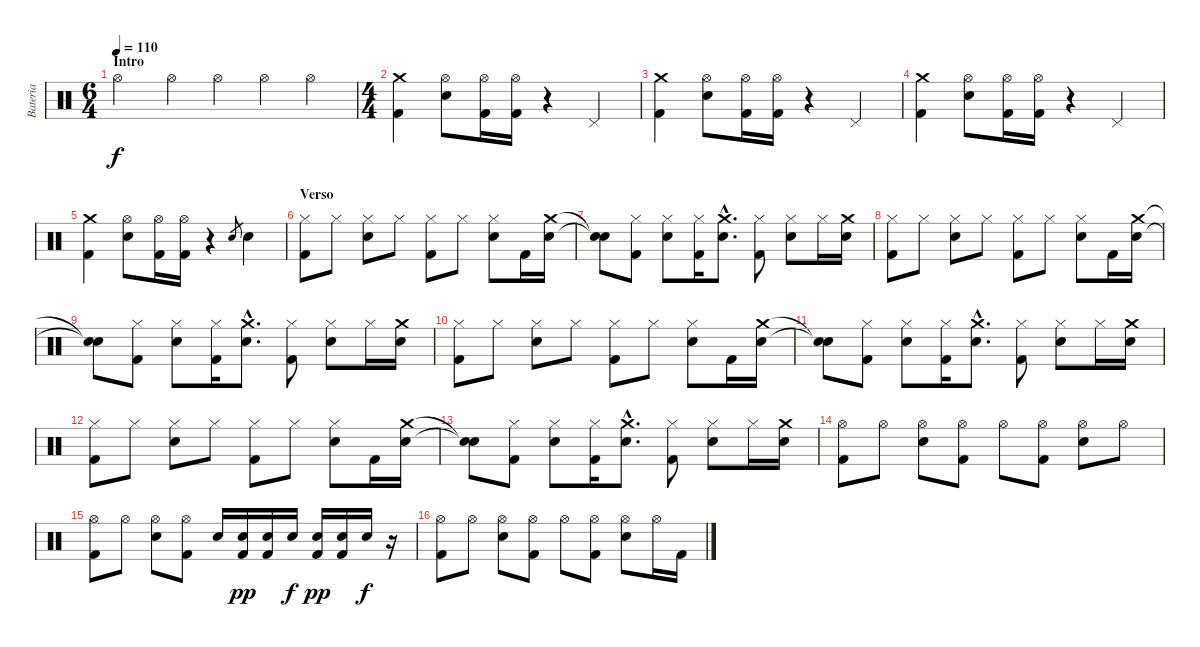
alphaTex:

\track ("Bateria" "Bateria") {instrument percussion}
\staff {score}
\articulation defaults
\ts (6 4)
\section ("" "Intro")
\tempo 110
\clef neutral
\ks c "Hi-Hat (open)".2{dy f} "Hi-Hat (open)".4 "Hi-Hat (open)".4 "Hi-Hat (open)".4 "Hi-Hat (open)".4
|
\ts (4 4)
("Kick (hit) 2" "Crash medium (hit)").4 ("Snare (hit) 2" "Hi-Hat (open)").8 ("Kick (hit) 2" "Hi-Hat (open)").16 ("Kick (hit) 2" "Hi-Hat (open)").16 r.4 "Pedal Hi-Hat (hit)".4 |
("Kick (hit) 2" "Crash medium (hit)").4 ("Snare (hit) 2" "Hi-Hat (open)").8 ("Kick (hit) 2" "Hi-Hat (open)").16 ("Kick (hit) 2" "Hi-Hat (open)").16 r.4 "Pedal Hi-Hat (hit)".4 |
("Kick (hit) 2" "Crash medium (hit)").4 ("Snare (hit) 2" "Hi-Hat (open)").8 ("Kick (hit) 2" "Hi-Hat (open)").16 ("Kick (hit) 2" "Hi-Hat (open)").16 r.4 "Pedal Hi-Hat (hit)".4 |
("Kick (hit) 2" "Crash medium (hit)").4 ("Snare (hit) 2" "Hi-Hat (open)").8 ("Kick (hit) 2" "Hi-Hat (open)").16 ("Kick (hit) 2" "Hi-Hat (open)").16 r.4 "Snare (hit) 2".8{gr} "Snare (hit) 2".4 |
\section ("" "Verso")
("Hi-Hat (closed)" "Kick (hit) 2").8 "Hi-Hat (closed)".8 ("Hi-Hat (closed)" "Snare (hit) 2").8 "Hi-Hat (closed)".8 ("Hi-Hat (closed)" "Kick (hit) 2").8 "Hi-Hat (closed)".8 ("Hi-Hat (closed)" "Snare (hit) 2").8 "Kick (hit) 2".16 ("Crash medium (hit)" "Snare (hit) 2").16 |
("Snare (hit)"{t} "Snare (hit)"{t}).8 ("Hi-Hat (closed)" "Kick (hit) 2").8 ("Hi-Hat (closed)" "Snare (hit) 2").8 ("Hi-Hat (closed)" "Kick (hit) 2").16 ("Crash medium (hit)"{hac} "Snare (hit) 2"{hac}).8{d} ("Hi-Hat (closed)" "Kick (hit) 2").8 ("Hi-Hat (closed)" "Snare (hit) 2").8 "Hi-Hat (closed)".16 ("Crash medium (hit)" "Snare (hit) 2").16 |
("Hi-Hat (closed)" "Kick (hit) 2").8 "Hi-Hat (closed)".8 ("Hi-Hat (closed)" "Snare (hit) 2").8 "Hi-Hat (closed)".8 ("Hi-Hat (closed)" "Kick (hit) 2").8 "Hi-Hat (closed)".8 ("Hi-Hat (closed)" "Snare (hit) 2").8 "Kick (hit) 2".16 ("Crash medium (hit)" "Snare (hit) 2").16 |
("Snare (hit)"{t} "Snare (hit)"{t}).8 ("Hi-Hat (closed)" "Kick (hit) 2").8 ("Hi-Hat (closed)" "Snare (hit) 2").8 ("Hi-Hat (closed)" "Kick (hit) 2").16 ("Crash medium (hit)"{hac} "Snare (hit) 2"{hac}).8{d} ("Hi-Hat (closed)" "Kick (hit) 2").8 ("Hi-Hat (closed)" "Snare (hit) 2").8 "Hi-Hat (closed)".16 ("Crash medium (hit)" "Snare (hit) 2").16 |
("Hi-Hat (closed)" "Kick (hit) 2").8 "Hi-Hat (closed)".8 ("Hi-Hat (closed)" "Snare (hit) 2").8 "Hi-Hat (closed)".8 ("Hi-Hat (closed)" "Kick (hit) 2").8 "Hi-Hat (closed)".8 ("Hi-Hat (closed)" "Snare (hit) 2").8 "Kick (hit) 2".16 ("Crash medium (hit)" "Snare (hit) 2").16 |
("Snare (hit)"{t} "Snare (hit)"{t}).8 ("Hi-Hat (closed)" "Kick (hit) 2").8 ("Hi-Hat (closed)" "Snare (hit) 2").8 ("Hi-Hat (closed)" "Kick (hit) 2").16 ("Crash medium (hit)"{hac} "Snare (hit) 2"{hac}).8{d} ("Hi-Hat (closed)" "Kick (hit) 2").8 ("Hi-Hat (closed)" "Snare (hit) 2").8 "Hi-Hat (closed)".16 ("Crash medium (hit)" "Snare (hit) 2").16 |
("Hi-Hat (closed)" "Kick (hit) 2").8 "Hi-Hat (closed)".8 ("Hi-Hat (closed)" "Snare (hit) 2").8 "Hi-Hat (closed)".8 ("Hi-Hat (closed)" "Kick (hit) 2").8 "Hi-Hat (closed)".8 ("Hi-Hat (closed)" "Snare (hit) 2").8 "Kick (hit) 2".16 ("Crash medium (hit)" "Snare (hit) 2").16 |
("Snare (hit)"{t} "Snare (hit)"{t}).8 ("Hi-Hat (closed)" "Kick (hit) 2").8 ("Hi-Hat (closed)" "Snare (hit) 2").8 ("Hi-Hat (closed)" "Kick (hit) 2").16 ("Crash medium (hit)"{hac} "Snare (hit) 2"{hac}).8{d} ("Hi-Hat (closed)" "Kick (hit) 2").8 ("Hi-Hat (closed)" "Snare (hit) 2").8 "Hi-Hat (closed)".16 ("Crash medium (hit)" "Snare (hit) 2").16 |
("Hi-Hat (open)" "Kick (hit) 2").8 "Hi-Hat (open)".8 ("Hi-Hat (open)" "Snare (hit) 2").8 ("Hi-Hat (open)" "Kick (hit) 2").8 "Hi-Hat (open)".8 ("Hi-Hat (open)" "Kick (hit) 2").8 ("Hi-Hat (open)" "Snare (hit) 2").8 "Hi-Hat (open)".8 |
("Hi-Hat (open)" "Kick (hit) 2").8 "Hi-Hat (open)".8 ("Hi-Hat (open)" "Snare (hit) 2").8 ("Hi-Hat (open)" "Kick (hit) 2").8 "Snare (hit) 2".16 ("Kick (hit) 2" "Snare (hit) 2").16{dy pp} ("Kick (hit) 2" "Snare (hit) 2").16 "Snare (hit) 2".16{dy f} ("Kick (hit) 2" "Snare (hit) 2").16{dy pp} ("Kick (hit) 2" "Snare (hit) 2").16 "Snare (hit) 2".16{dy f} r.16 |
("Hi-Hat (open)" "Kick (hit) 2").8 "Hi-Hat (open)".8 ("Hi-Hat (open)" "Snare (hit) 2").8 ("Hi-Hat (open)" "Kick (hit) 2").8 "Hi-Hat (open)".8 ("Hi-Hat (open)" "Kick (hit) 2").8 ("Hi-Hat (open)" "Snare (hit) 2").8 "Hi-Hat (open)".16 "Kick (hit) 2".16
